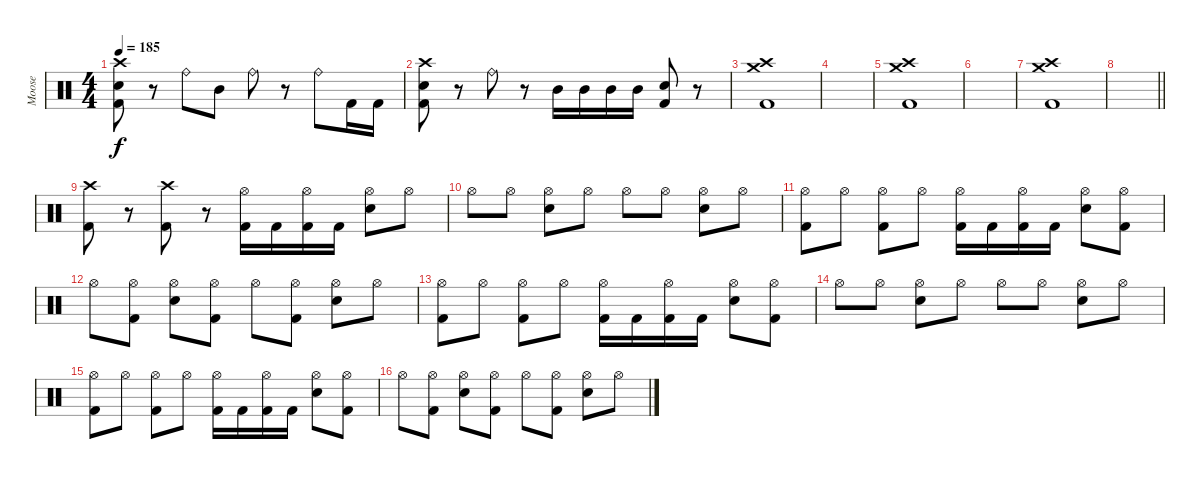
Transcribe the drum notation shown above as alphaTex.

\track ("Moose" "Moose") {instrument percussion}
\staff {score}
\articulation defaults
\ts (4 4)
\tempo 185
\clef neutral
\ks c
("Crash high (hit)" "Electric Snare (hit)" "Kick (hit) 2").8{dy f} r.8 "Ride (bell)".8 "Mid Tom (hit)".8 "Ride (bell)".8 r.8 "Ride (bell)".8 "Kick (hit) 2".16 "Kick (hit) 2".16 |
("Crash high (hit)" "Electric Snare (hit)" "Kick (hit) 2").8 r.8 "Ride (bell)".8 r.8 "Mid Tom (hit)".16 "Mid Tom (hit)".16 "Mid Tom (hit)".16 "Mid Tom (hit)".16 ("Electric Snare (hit)" "Kick (hit) 2").8 r.8 |
("Crash medium (hit)" "Crash high (hit)" "Kick (hit) 2").1 |
|
("Crash medium (hit)" "Crash high (hit)" "Kick (hit) 2").1 |
|
("Crash medium (hit)" "Crash high (hit)" "Kick (hit) 2").1 |
\barLineRight lightlight
|
("Crash high (hit)" "Kick (hit) 2").8 r.8 ("Crash high (hit)" "Kick (hit) 2").8 r.8 ("Hi-Hat (open)" "Kick (hit) 2").16 "Kick (hit) 2".16 ("Hi-Hat (open)" "Kick (hit) 2").16 "Kick (hit) 2".16 ("Hi-Hat (open)" "Electric Snare (hit)").8 "Hi-Hat (open)".8 |
"Hi-Hat (open)".8 "Hi-Hat (open)".8 ("Hi-Hat (open)" "Electric Snare (hit)").8 "Hi-Hat (open)".8 "Hi-Hat (open)".8 "Hi-Hat (open)".8 ("Hi-Hat (open)" "Electric Snare (hit)").8 "Hi-Hat (open)".8 |
("Hi-Hat (open)" "Kick (hit) 2").8 "Hi-Hat (open)".8 ("Hi-Hat (open)" "Kick (hit) 2").8 "Hi-Hat (open)".8 ("Hi-Hat (open)" "Kick (hit) 2").16 "Kick (hit) 2".16 ("Hi-Hat (open)" "Kick (hit) 2").16 "Kick (hit) 2".16 ("Hi-Hat (open)" "Electric Snare (hit)").8 ("Hi-Hat (open)" "Kick (hit) 2").8 |
"Hi-Hat (open)".8 ("Hi-Hat (open)" "Kick (hit) 2").8 ("Hi-Hat (open)" "Electric Snare (hit)").8 ("Hi-Hat (open)" "Kick (hit) 2").8 "Hi-Hat (open)".8 ("Hi-Hat (open)" "Kick (hit) 2").8 ("Hi-Hat (open)" "Electric Snare (hit)").8 "Hi-Hat (open)".8 |
("Hi-Hat (open)" "Kick (hit) 2").8 "Hi-Hat (open)".8 ("Hi-Hat (open)" "Kick (hit) 2").8 "Hi-Hat (open)".8 ("Hi-Hat (open)" "Kick (hit) 2").16 "Kick (hit) 2".16 ("Hi-Hat (open)" "Kick (hit) 2").16 "Kick (hit) 2".16 ("Hi-Hat (open)" "Electric Snare (hit)").8 ("Hi-Hat (open)" "Kick (hit) 2").8 |
"Hi-Hat (open)".8 "Hi-Hat (open)".8 ("Hi-Hat (open)" "Electric Snare (hit)").8 "Hi-Hat (open)".8 "Hi-Hat (open)".8 "Hi-Hat (open)".8 ("Hi-Hat (open)" "Electric Snare (hit)").8 "Hi-Hat (open)".8 |
("Hi-Hat (open)" "Kick (hit) 2").8 "Hi-Hat (open)".8 ("Hi-Hat (open)" "Kick (hit) 2").8 "Hi-Hat (open)".8 ("Hi-Hat (open)" "Kick (hit) 2").16 "Kick (hit) 2".16 ("Hi-Hat (open)" "Kick (hit) 2").16 "Kick (hit) 2".16 ("Hi-Hat (open)" "Electric Snare (hit)").8 ("Hi-Hat (open)" "Kick (hit) 2").8 |
"Hi-Hat (open)".8 ("Hi-Hat (open)" "Kick (hit) 2").8 ("Hi-Hat (open)" "Electric Snare (hit)").8 ("Hi-Hat (open)" "Kick (hit) 2").8 "Hi-Hat (open)".8 ("Hi-Hat (open)" "Kick (hit) 2").8 ("Hi-Hat (open)" "Electric Snare (hit)").8 "Hi-Hat (open)".8
